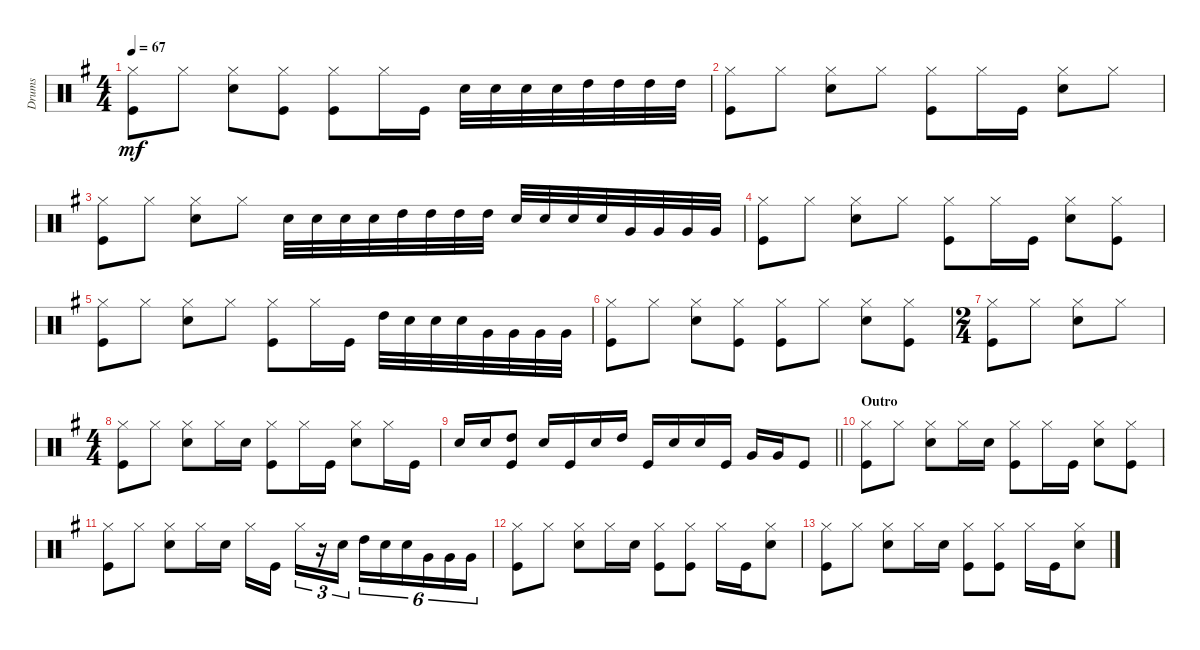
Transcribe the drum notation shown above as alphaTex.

\track ("Drums" "Drums") {instrument percussion}
\staff {score}
\articulation defaults
\ts (4 4)
\tempo 67
\clef neutral
\ks g
("Kick (hit)" "Hi-Hat (closed)").8{dy mf} "Hi-Hat (closed)".8 ("Hi-Hat (closed)" "Snare (hit) 2").8 ("Hi-Hat (closed)" "Kick (hit)").8 ("Kick (hit)" "Hi-Hat (closed)").8 "Hi-Hat (closed)".16 "Kick (hit)".16 "Snare (hit) 2".32 "Snare (hit) 2".32 "Snare (hit) 2".32 "Snare (hit) 2".32 "High Tom (hit)".32 "High Tom (hit)".32 "High Tom (hit)".32 "High Tom (hit)".32 |
("Kick (hit)" "Hi-Hat (closed)").8 "Hi-Hat (closed)".8 ("Hi-Hat (closed)" "Snare (hit) 2").8 "Hi-Hat (closed)".8 ("Kick (hit)" "Hi-Hat (closed)").8 "Hi-Hat (closed)".16 "Kick (hit)".16 ("Hi-Hat (closed)" "Snare (hit) 2").8 "Hi-Hat (closed)".8 |
("Kick (hit)" "Hi-Hat (closed)").8 "Hi-Hat (closed)".8 ("Hi-Hat (closed)" "Snare (hit) 2").8 "Hi-Hat (closed)".8 "Snare (hit) 2".32 "Snare (hit) 2".32 "Snare (hit) 2".32 "Snare (hit) 2".32 "High Tom (hit)".32 "High Tom (hit)".32 "High Tom (hit)".32 "High Tom (hit)".32 "Snare (hit) 2".32 "Snare (hit) 2".32 "Snare (hit) 2".32 "Snare (hit) 2".32 "Very Low Tom (hit)".32 "Very Low Tom (hit)".32 "Very Low Tom (hit)".32 "Very Low Tom (hit)".32 |
("Kick (hit)" "Hi-Hat (closed)").8 "Hi-Hat (closed)".8 ("Hi-Hat (closed)" "Snare (hit) 2").8 "Hi-Hat (closed)".8 ("Kick (hit)" "Hi-Hat (closed)").8 "Hi-Hat (closed)".16 "Kick (hit)".16 ("Hi-Hat (closed)" "Snare (hit) 2").8 ("Hi-Hat (closed)" "Kick (hit)").8 |
("Kick (hit)" "Hi-Hat (closed)").8 "Hi-Hat (closed)".8 ("Hi-Hat (closed)" "Snare (hit) 2").8 "Hi-Hat (closed)".8 ("Kick (hit)" "Hi-Hat (closed)").8 "Hi-Hat (closed)".16 "Kick (hit)".16 "High Tom (hit)".32 "Snare (hit) 2".32 "Snare (hit) 2".32 "Snare (hit) 2".32 "Very Low Tom (hit)".32 "Very Low Tom (hit)".32 "Very Low Tom (hit)".32 "Very Low Tom (hit)".32 |
("Kick (hit)" "Hi-Hat (closed)").8 "Hi-Hat (closed)".8 ("Hi-Hat (closed)" "Snare (hit) 2").8 ("Hi-Hat (closed)" "Kick (hit)").8 ("Kick (hit)" "Hi-Hat (closed)").8 "Hi-Hat (closed)".8 ("Hi-Hat (closed)" "Snare (hit) 2").8 ("Hi-Hat (closed)" "Kick (hit)").8 |
\ts (2 4)
("Kick (hit)" "Hi-Hat (closed)").8 "Hi-Hat (closed)".8 ("Hi-Hat (closed)" "Snare (hit) 2").8 "Hi-Hat (closed)".8 |
\ts (4 4)
("Kick (hit)" "Hi-Hat (closed)").8 "Hi-Hat (closed)".8 ("Hi-Hat (closed)" "Snare (hit) 2").8 "Hi-Hat (closed)".16 "Snare (hit) 2".16 ("Kick (hit)" "Hi-Hat (closed)").8 "Hi-Hat (closed)".16 "Kick (hit)".16 ("Hi-Hat (closed)" "Snare (hit) 2").8 "Hi-Hat (closed)".16 "Kick (hit)".16 |
\barLineRight lightlight "Snare (hit) 2".16 "Snare (hit) 2".16
("High Tom (hit)" "Kick (hit)").8 "Snare (hit) 2".16 "Kick (hit)".16 "Snare (hit) 2".16 "High Tom (hit)".16 "Kick (hit)".16 "Snare (hit) 2".16 "Snare (hit) 2".16 "Kick (hit)".16 "Very Low Tom (hit)".16 "Very Low Tom (hit)".16 "Kick (hit)".8 |
\section ("" "Outro")
("Kick (hit)" "Hi-Hat (closed)").8 "Hi-Hat (closed)".8 ("Hi-Hat (closed)" "Snare (hit) 2").8 "Hi-Hat (closed)".16 "Snare (hit) 2".16 ("Kick (hit)" "Hi-Hat (closed)").8 "Hi-Hat (closed)".16 "Kick (hit)".16 ("Hi-Hat (closed)" "Snare (hit) 2").8 ("Hi-Hat (closed)" "Kick (hit)").8 |
("Kick (hit)" "Hi-Hat (closed)").8 "Hi-Hat (closed)".8 ("Hi-Hat (closed)" "Snare (hit) 2").8 "Hi-Hat (closed)".16 "Snare (hit) 2".16 "Hi-Hat (closed)".16 "Kick (hit)".16 "Hi-Hat (closed)".16{tu (3 2)} r.16{tu (3 2)} "Snare (hit) 2".16{tu (3 2)} "High Tom (hit)".16{tu (6 4)} "Snare (hit) 2".16{tu (6 4)} "Snare (hit) 2".16{tu (6 4)} "Very Low Tom (hit)".16{tu (6 4)} "Very Low Tom (hit)".16{tu (6 4)} "Very Low Tom (hit)".16{tu (6 4)} |
("Kick (hit)" "Hi-Hat (closed)").8 "Hi-Hat (closed)".8 ("Hi-Hat (closed)" "Snare (hit) 2").8 "Hi-Hat (closed)".16 "Snare (hit) 2".16 ("Kick (hit)" "Hi-Hat (closed)").8 ("Hi-Hat (closed)" "Kick (hit)").8 "Hi-Hat (closed)".16 "Kick (hit)".16 ("Hi-Hat (closed)" "Snare (hit) 2").8 |
("Kick (hit)" "Hi-Hat (closed)").8 "Hi-Hat (closed)".8 ("Hi-Hat (closed)" "Snare (hit) 2").8 "Hi-Hat (closed)".16 "Snare (hit) 2".16 ("Kick (hit)" "Hi-Hat (closed)").8 ("Hi-Hat (closed)" "Kick (hit)").8 "Hi-Hat (closed)".16 "Kick (hit)".16 ("Hi-Hat (closed)" "Snare (hit) 2").8
